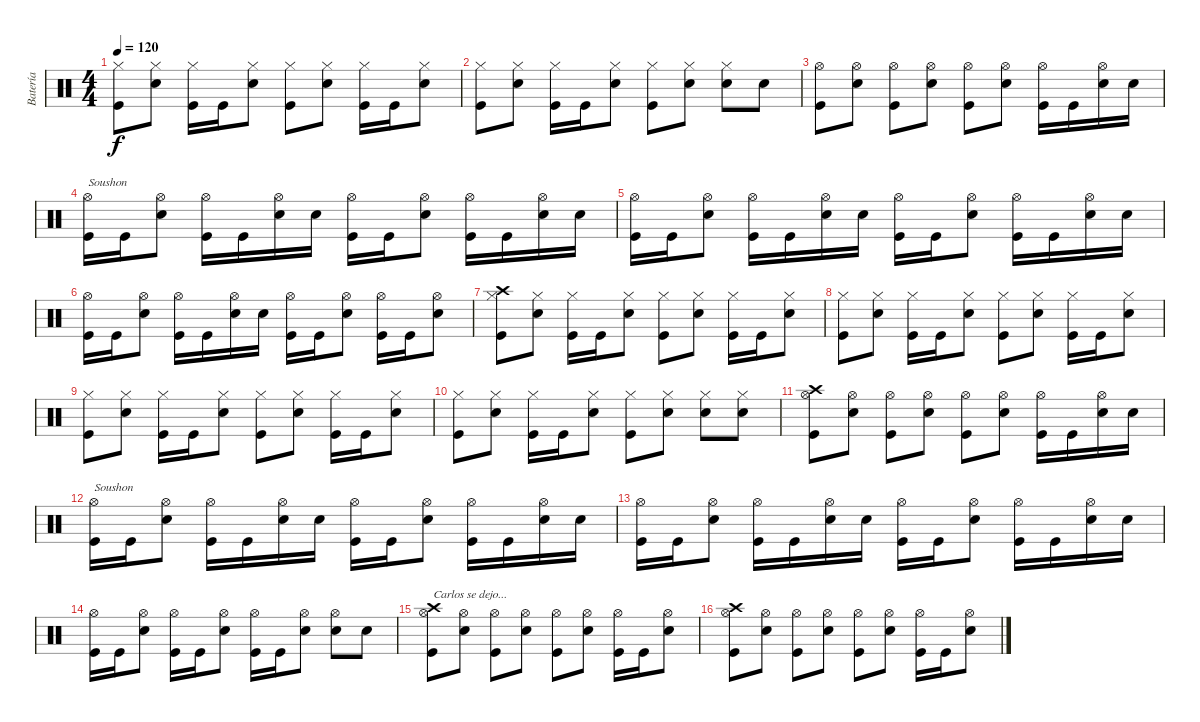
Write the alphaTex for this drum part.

\track ("Batería" "Batería") {instrument percussion}
\staff {score}
\articulation defaults
\ts (4 4)
\tempo 120
\clef neutral
\ks c
("Hi-Hat (closed)" "Kick (hit)").8{dy f} ("Hi-Hat (closed)" "Electric Snare (hit)").8 ("Hi-Hat (closed)" "Kick (hit)").16 "Kick (hit)".16 ("Hi-Hat (closed)" "Electric Snare (hit)").8 ("Hi-Hat (closed)" "Kick (hit)").8 ("Hi-Hat (closed)" "Electric Snare (hit)").8 ("Hi-Hat (closed)" "Kick (hit)").16 "Kick (hit)".16 ("Hi-Hat (closed)" "Electric Snare (hit)").8 |
("Hi-Hat (closed)" "Kick (hit)").8 ("Hi-Hat (closed)" "Electric Snare (hit)").8 ("Hi-Hat (closed)" "Kick (hit)").16 "Kick (hit)".16 ("Hi-Hat (closed)" "Electric Snare (hit)").8 ("Hi-Hat (closed)" "Kick (hit)").8 ("Hi-Hat (closed)" "Electric Snare (hit)").8 ("Hi-Hat (closed)" "Electric Snare (hit)").8 "Electric Snare (hit)".8 |
("Hi-Hat (open)" "Kick (hit)").8 ("Hi-Hat (open)" "Electric Snare (hit)").8 ("Hi-Hat (open)" "Kick (hit)").8 ("Hi-Hat (open)" "Electric Snare (hit)").8 ("Hi-Hat (open)" "Kick (hit)").8 ("Hi-Hat (open)" "Electric Snare (hit)").8 ("Hi-Hat (open)" "Kick (hit)").16 "Kick (hit)".16 ("Hi-Hat (open)" "Electric Snare (hit)").16 "Electric Snare (hit)".16 |
("Hi-Hat (open)" "Kick (hit)").16{txt "Soushon"} "Kick (hit)".16 ("Hi-Hat (open)" "Electric Snare (hit)").8 ("Hi-Hat (open)" "Kick (hit)").16 "Kick (hit)".16 ("Hi-Hat (open)" "Electric Snare (hit)").16 "Electric Snare (hit)".16 ("Hi-Hat (open)" "Kick (hit)").16 "Kick (hit)".16 ("Hi-Hat (open)" "Electric Snare (hit)").8 ("Hi-Hat (open)" "Kick (hit)").16 "Kick (hit)".16 ("Hi-Hat (open)" "Electric Snare (hit)").16 "Electric Snare (hit)".16 |
("Hi-Hat (open)" "Kick (hit)").16 "Kick (hit)".16 ("Hi-Hat (open)" "Electric Snare (hit)").8 ("Hi-Hat (open)" "Kick (hit)").16 "Kick (hit)".16 ("Hi-Hat (open)" "Electric Snare (hit)").16 "Electric Snare (hit)".16 ("Hi-Hat (open)" "Kick (hit)").16 "Kick (hit)".16 ("Hi-Hat (open)" "Electric Snare (hit)").8 ("Hi-Hat (open)" "Kick (hit)").16 "Kick (hit)".16 ("Hi-Hat (open)" "Electric Snare (hit)").16 "Electric Snare (hit)".16 |
("Hi-Hat (open)" "Kick (hit)").16 "Kick (hit)".16 ("Hi-Hat (open)" "Electric Snare (hit)").8 ("Hi-Hat (open)" "Kick (hit)").16 "Kick (hit)".16 ("Hi-Hat (open)" "Electric Snare (hit)").16 "Electric Snare (hit)".16 ("Hi-Hat (open)" "Kick (hit)").16 "Kick (hit)".16 ("Hi-Hat (open)" "Electric Snare (hit)").8 ("Hi-Hat (open)" "Kick (hit)").16 "Kick (hit)".16 ("Hi-Hat (open)" "Electric Snare (hit)").8 |
("Crash high (hit)" "Hi-Hat (closed)" "Kick (hit)").8 ("Hi-Hat (closed)" "Electric Snare (hit)").8 ("Hi-Hat (closed)" "Kick (hit)").16 "Kick (hit)".16 ("Hi-Hat (closed)" "Electric Snare (hit)").8 ("Hi-Hat (closed)" "Kick (hit)").8 ("Hi-Hat (closed)" "Electric Snare (hit)").8 ("Hi-Hat (closed)" "Kick (hit)").16 "Kick (hit)".16 ("Hi-Hat (closed)" "Electric Snare (hit)").8 |
("Hi-Hat (closed)" "Kick (hit)").8 ("Hi-Hat (closed)" "Electric Snare (hit)").8 ("Hi-Hat (closed)" "Kick (hit)").16 "Kick (hit)".16 ("Hi-Hat (closed)" "Electric Snare (hit)").8 ("Hi-Hat (closed)" "Kick (hit)").8 ("Hi-Hat (closed)" "Electric Snare (hit)").8 ("Hi-Hat (closed)" "Kick (hit)").16 "Kick (hit)".16 ("Hi-Hat (closed)" "Electric Snare (hit)").8 |
("Hi-Hat (closed)" "Kick (hit)").8 ("Hi-Hat (closed)" "Electric Snare (hit)").8 ("Hi-Hat (closed)" "Kick (hit)").16 "Kick (hit)".16 ("Hi-Hat (closed)" "Electric Snare (hit)").8 ("Hi-Hat (closed)" "Kick (hit)").8 ("Hi-Hat (closed)" "Electric Snare (hit)").8 ("Hi-Hat (closed)" "Kick (hit)").16 "Kick (hit)".16 ("Hi-Hat (closed)" "Electric Snare (hit)").8 |
("Hi-Hat (closed)" "Kick (hit)").8 ("Hi-Hat (closed)" "Electric Snare (hit)").8 ("Hi-Hat (closed)" "Kick (hit)").16 "Kick (hit)".16 ("Hi-Hat (closed)" "Electric Snare (hit)").8 ("Hi-Hat (closed)" "Kick (hit)").8 ("Hi-Hat (closed)" "Electric Snare (hit)").8 ("Hi-Hat (closed)" "Electric Snare (hit)").8 ("Hi-Hat (closed)" "Electric Snare (hit)").8 |
("Crash high (hit)" "Hi-Hat (open)" "Kick (hit)").8 ("Hi-Hat (open)" "Electric Snare (hit)").8 ("Hi-Hat (open)" "Kick (hit)").8 ("Hi-Hat (open)" "Electric Snare (hit)").8 ("Hi-Hat (open)" "Kick (hit)").8 ("Hi-Hat (open)" "Electric Snare (hit)").8 ("Hi-Hat (open)" "Kick (hit)").16 "Kick (hit)".16 ("Hi-Hat (open)" "Electric Snare (hit)").16 "Electric Snare (hit)".16 |
("Hi-Hat (open)" "Kick (hit)").16{txt "Soushon"} "Kick (hit)".16 ("Hi-Hat (open)" "Electric Snare (hit)").8 ("Hi-Hat (open)" "Kick (hit)").16 "Kick (hit)".16 ("Hi-Hat (open)" "Electric Snare (hit)").16 "Electric Snare (hit)".16 ("Hi-Hat (open)" "Kick (hit)").16 "Kick (hit)".16 ("Hi-Hat (open)" "Electric Snare (hit)").8 ("Hi-Hat (open)" "Kick (hit)").16 "Kick (hit)".16 ("Hi-Hat (open)" "Electric Snare (hit)").16 "Electric Snare (hit)".16 |
("Hi-Hat (open)" "Kick (hit)").16 "Kick (hit)".16 ("Hi-Hat (open)" "Electric Snare (hit)").8 ("Hi-Hat (open)" "Kick (hit)").16 "Kick (hit)".16 ("Hi-Hat (open)" "Electric Snare (hit)").16 "Electric Snare (hit)".16 ("Hi-Hat (open)" "Kick (hit)").16 "Kick (hit)".16 ("Hi-Hat (open)" "Electric Snare (hit)").8 ("Hi-Hat (open)" "Kick (hit)").16 "Kick (hit)".16 ("Hi-Hat (open)" "Electric Snare (hit)").16 "Electric Snare (hit)".16 |
("Hi-Hat (open)" "Kick (hit)").16 "Kick (hit)".16 ("Hi-Hat (open)" "Electric Snare (hit)").8 ("Hi-Hat (open)" "Kick (hit)").16 "Kick (hit)".16 ("Hi-Hat (open)" "Electric Snare (hit)").8 ("Hi-Hat (open)" "Kick (hit)").16 "Kick (hit)".16 ("Hi-Hat (open)" "Electric Snare (hit)").8 ("Hi-Hat (open)" "Electric Snare (hit)").8 "Electric Snare (hit)".8 |
("Crash high (hit)" "Hi-Hat (open)" "Kick (hit)").8{txt "Carlos se dejo..."} ("Hi-Hat (open)" "Electric Snare (hit)").8 ("Hi-Hat (open)" "Kick (hit)").8 ("Hi-Hat (open)" "Electric Snare (hit)").8 ("Hi-Hat (open)" "Kick (hit)").8 ("Hi-Hat (open)" "Electric Snare (hit)").8 ("Hi-Hat (open)" "Kick (hit)").16 "Kick (hit)".16 ("Hi-Hat (open)" "Electric Snare (hit)").8 |
("Crash high (hit)" "Hi-Hat (open)" "Kick (hit)").8 ("Hi-Hat (open)" "Electric Snare (hit)").8 ("Hi-Hat (open)" "Kick (hit)").8 ("Hi-Hat (open)" "Electric Snare (hit)").8 ("Hi-Hat (open)" "Kick (hit)").8 ("Hi-Hat (open)" "Electric Snare (hit)").8 ("Hi-Hat (open)" "Kick (hit)").16 "Kick (hit)".16 ("Hi-Hat (open)" "Electric Snare (hit)").8
